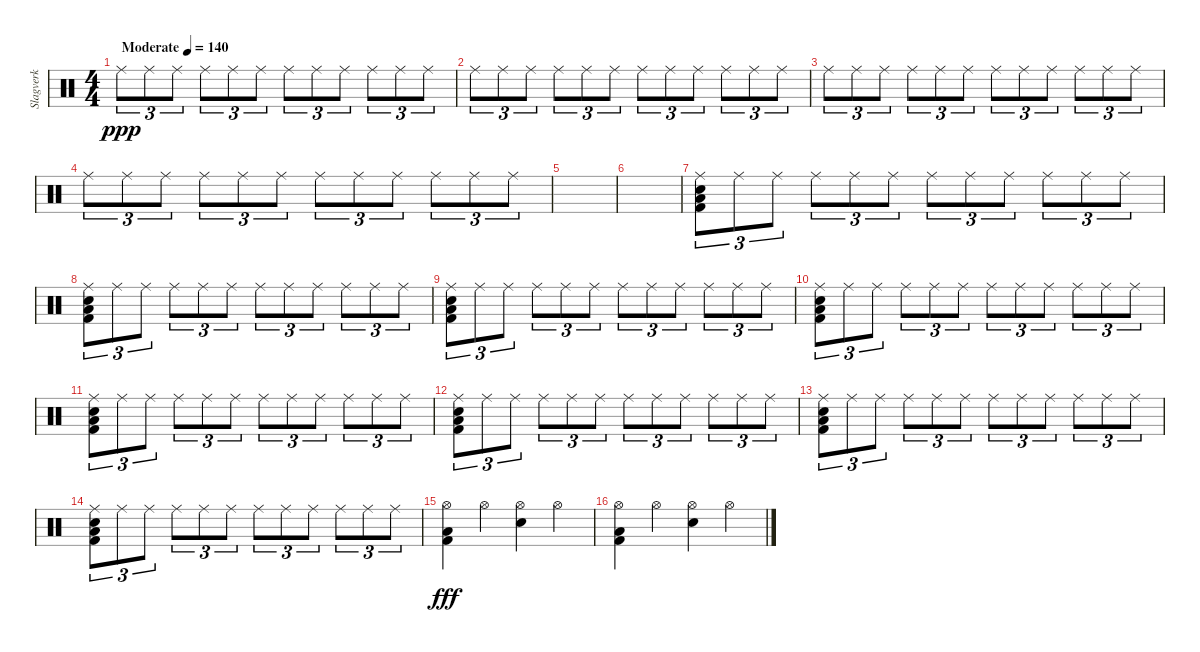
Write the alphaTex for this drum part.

\track ("Slagverk" "Slagverk") {instrument percussion}
\staff {score}
\articulation defaults
\ts (4 4)
\tempo (140 "Moderate")
\clef neutral
\ks c "Ride (middle)".8{tu (3 2) dy ppp} "Ride (middle)".8{tu (3 2)} "Ride (middle)".8{tu (3 2)} "Ride (middle)".8{tu (3 2)} "Ride (middle)".8{tu (3 2)} "Ride (middle)".8{tu (3 2)} "Ride (middle)".8{tu (3 2)} "Ride (middle)".8{tu (3 2)} "Ride (middle)".8{tu (3 2)} "Ride (middle)".8{tu (3 2)} "Ride (middle)".8{tu (3 2)} "Ride (middle)".8{tu (3 2)}
|
"Ride (middle)".8{tu (3 2)} "Ride (middle)".8{tu (3 2)} "Ride (middle)".8{tu (3 2)} "Ride (middle)".8{tu (3 2)} "Ride (middle)".8{tu (3 2)} "Ride (middle)".8{tu (3 2)} "Ride (middle)".8{tu (3 2)} "Ride (middle)".8{tu (3 2)} "Ride (middle)".8{tu (3 2)} "Ride (middle)".8{tu (3 2)} "Ride (middle)".8{tu (3 2)} "Ride (middle)".8{tu (3 2)} |
"Ride (middle)".8{tu (3 2)} "Ride (middle)".8{tu (3 2)} "Ride (middle)".8{tu (3 2)} "Ride (middle)".8{tu (3 2)} "Ride (middle)".8{tu (3 2)} "Ride (middle)".8{tu (3 2)} "Ride (middle)".8{tu (3 2)} "Ride (middle)".8{tu (3 2)} "Ride (middle)".8{tu (3 2)} "Ride (middle)".8{tu (3 2)} "Ride (middle)".8{tu (3 2)} "Ride (middle)".8{tu (3 2)} |
"Ride (middle)".8{tu (3 2)} "Ride (middle)".8{tu (3 2)} "Ride (middle)".8{tu (3 2)} "Ride (middle)".8{tu (3 2)} "Ride (middle)".8{tu (3 2)} "Ride (middle)".8{tu (3 2)} "Ride (middle)".8{tu (3 2)} "Ride (middle)".8{tu (3 2)} "Ride (middle)".8{tu (3 2)} "Ride (middle)".8{tu (3 2)} "Ride (middle)".8{tu (3 2)} "Ride (middle)".8{tu (3 2)} |
|
|
("Ride (middle)" "Low Floor Tom (hit)" "Kick (hit) 2" "Snare (hit) 2").8{tu (3 2)} "Ride (middle)".8{tu (3 2)} "Ride (middle)".8{tu (3 2)} "Ride (middle)".8{tu (3 2)} "Ride (middle)".8{tu (3 2)} "Ride (middle)".8{tu (3 2)} "Ride (middle)".8{tu (3 2)} "Ride (middle)".8{tu (3 2)} "Ride (middle)".8{tu (3 2)} "Ride (middle)".8{tu (3 2)} "Ride (middle)".8{tu (3 2)} "Ride (middle)".8{tu (3 2)} |
("Ride (middle)" "Low Floor Tom (hit)" "Kick (hit) 2" "Snare (hit) 2").8{tu (3 2)} "Ride (middle)".8{tu (3 2)} "Ride (middle)".8{tu (3 2)} "Ride (middle)".8{tu (3 2)} "Ride (middle)".8{tu (3 2)} "Ride (middle)".8{tu (3 2)} "Ride (middle)".8{tu (3 2)} "Ride (middle)".8{tu (3 2)} "Ride (middle)".8{tu (3 2)} "Ride (middle)".8{tu (3 2)} "Ride (middle)".8{tu (3 2)} "Ride (middle)".8{tu (3 2)} |
("Ride (middle)" "Low Floor Tom (hit)" "Kick (hit) 2" "Snare (hit) 2").8{tu (3 2)} "Ride (middle)".8{tu (3 2)} "Ride (middle)".8{tu (3 2)} "Ride (middle)".8{tu (3 2)} "Ride (middle)".8{tu (3 2)} "Ride (middle)".8{tu (3 2)} "Ride (middle)".8{tu (3 2)} "Ride (middle)".8{tu (3 2)} "Ride (middle)".8{tu (3 2)} "Ride (middle)".8{tu (3 2)} "Ride (middle)".8{tu (3 2)} "Ride (middle)".8{tu (3 2)} |
("Ride (middle)" "Low Floor Tom (hit)" "Kick (hit) 2" "Snare (hit) 2").8{tu (3 2)} "Ride (middle)".8{tu (3 2)} "Ride (middle)".8{tu (3 2)} "Ride (middle)".8{tu (3 2)} "Ride (middle)".8{tu (3 2)} "Ride (middle)".8{tu (3 2)} "Ride (middle)".8{tu (3 2)} "Ride (middle)".8{tu (3 2)} "Ride (middle)".8{tu (3 2)} "Ride (middle)".8{tu (3 2)} "Ride (middle)".8{tu (3 2)} "Ride (middle)".8{tu (3 2)} |
("Ride (middle)" "Low Floor Tom (hit)" "Kick (hit) 2" "Snare (hit) 2").8{tu (3 2)} "Ride (middle)".8{tu (3 2)} "Ride (middle)".8{tu (3 2)} "Ride (middle)".8{tu (3 2)} "Ride (middle)".8{tu (3 2)} "Ride (middle)".8{tu (3 2)} "Ride (middle)".8{tu (3 2)} "Ride (middle)".8{tu (3 2)} "Ride (middle)".8{tu (3 2)} "Ride (middle)".8{tu (3 2)} "Ride (middle)".8{tu (3 2)} "Ride (middle)".8{tu (3 2)} |
("Ride (middle)" "Low Floor Tom (hit)" "Kick (hit) 2" "Snare (hit) 2").8{tu (3 2)} "Ride (middle)".8{tu (3 2)} "Ride (middle)".8{tu (3 2)} "Ride (middle)".8{tu (3 2)} "Ride (middle)".8{tu (3 2)} "Ride (middle)".8{tu (3 2)} "Ride (middle)".8{tu (3 2)} "Ride (middle)".8{tu (3 2)} "Ride (middle)".8{tu (3 2)} "Ride (middle)".8{tu (3 2)} "Ride (middle)".8{tu (3 2)} "Ride (middle)".8{tu (3 2)} |
("Ride (middle)" "Low Floor Tom (hit)" "Kick (hit) 2" "Snare (hit) 2").8{tu (3 2)} "Ride (middle)".8{tu (3 2)} "Ride (middle)".8{tu (3 2)} "Ride (middle)".8{tu (3 2)} "Ride (middle)".8{tu (3 2)} "Ride (middle)".8{tu (3 2)} "Ride (middle)".8{tu (3 2)} "Ride (middle)".8{tu (3 2)} "Ride (middle)".8{tu (3 2)} "Ride (middle)".8{tu (3 2)} "Ride (middle)".8{tu (3 2)} "Ride (middle)".8{tu (3 2)} |
("Ride (middle)" "Low Floor Tom (hit)" "Kick (hit) 2" "Snare (hit) 2").8{tu (3 2)} "Ride (middle)".8{tu (3 2)} "Ride (middle)".8{tu (3 2)} "Ride (middle)".8{tu (3 2)} "Ride (middle)".8{tu (3 2)} "Ride (middle)".8{tu (3 2)} "Ride (middle)".8{tu (3 2)} "Ride (middle)".8{tu (3 2)} "Ride (middle)".8{tu (3 2)} "Ride (middle)".8{tu (3 2)} "Ride (middle)".8{tu (3 2)} "Ride (middle)".8{tu (3 2)} |
("Hi-Hat (open)" "Low Floor Tom (hit)" "Kick (hit) 2").4{dy fff} "Hi-Hat (open)".4 ("Hi-Hat (open)" "Snare (hit) 2").4 "Hi-Hat (open)".4 |
("Hi-Hat (open)" "Low Floor Tom (hit)" "Kick (hit) 2").4 "Hi-Hat (open)".4 ("Hi-Hat (open)" "Snare (hit) 2").4 "Hi-Hat (open)".4
